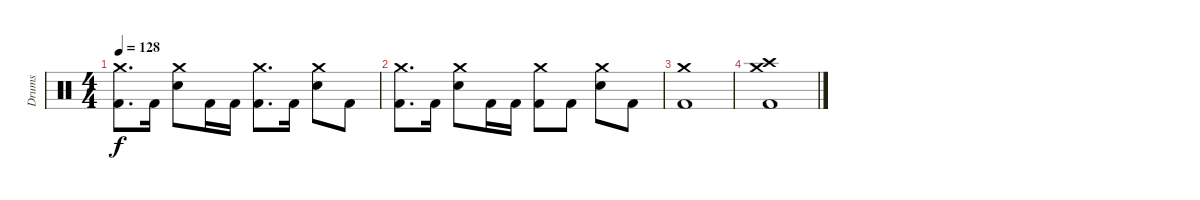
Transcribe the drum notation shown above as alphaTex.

\track ("Drums" "Drums") {instrument percussion}
\staff {score}
\articulation defaults
\ts (4 4)
\tempo 128
\clef neutral
\ks c
("Kick (hit) 2" "Crash medium (hit)").8{d dy f} "Kick (hit) 2".16 ("Snare (hit) 2" "Crash medium (hit)").8 "Kick (hit) 2".16 "Kick (hit) 2".16 ("Kick (hit) 2" "Crash medium (hit)").8{d} "Kick (hit) 2".16 ("Snare (hit) 2" "Crash medium (hit)").8 "Kick (hit) 2".8 |
("Kick (hit) 2" "Crash medium (hit)").8{d} "Kick (hit) 2".16 ("Snare (hit) 2" "Crash medium (hit)").8 "Kick (hit) 2".16 "Kick (hit) 2".16 ("Kick (hit) 2" "Crash medium (hit)").8 "Kick (hit) 2".8 ("Snare (hit) 2" "Crash medium (hit)").8 "Kick (hit) 2".8 |
("Kick (hit) 2" "Crash medium (hit)").1 |
("Kick (hit) 2" "Crash high (hit)" "Crash medium (hit)").1
